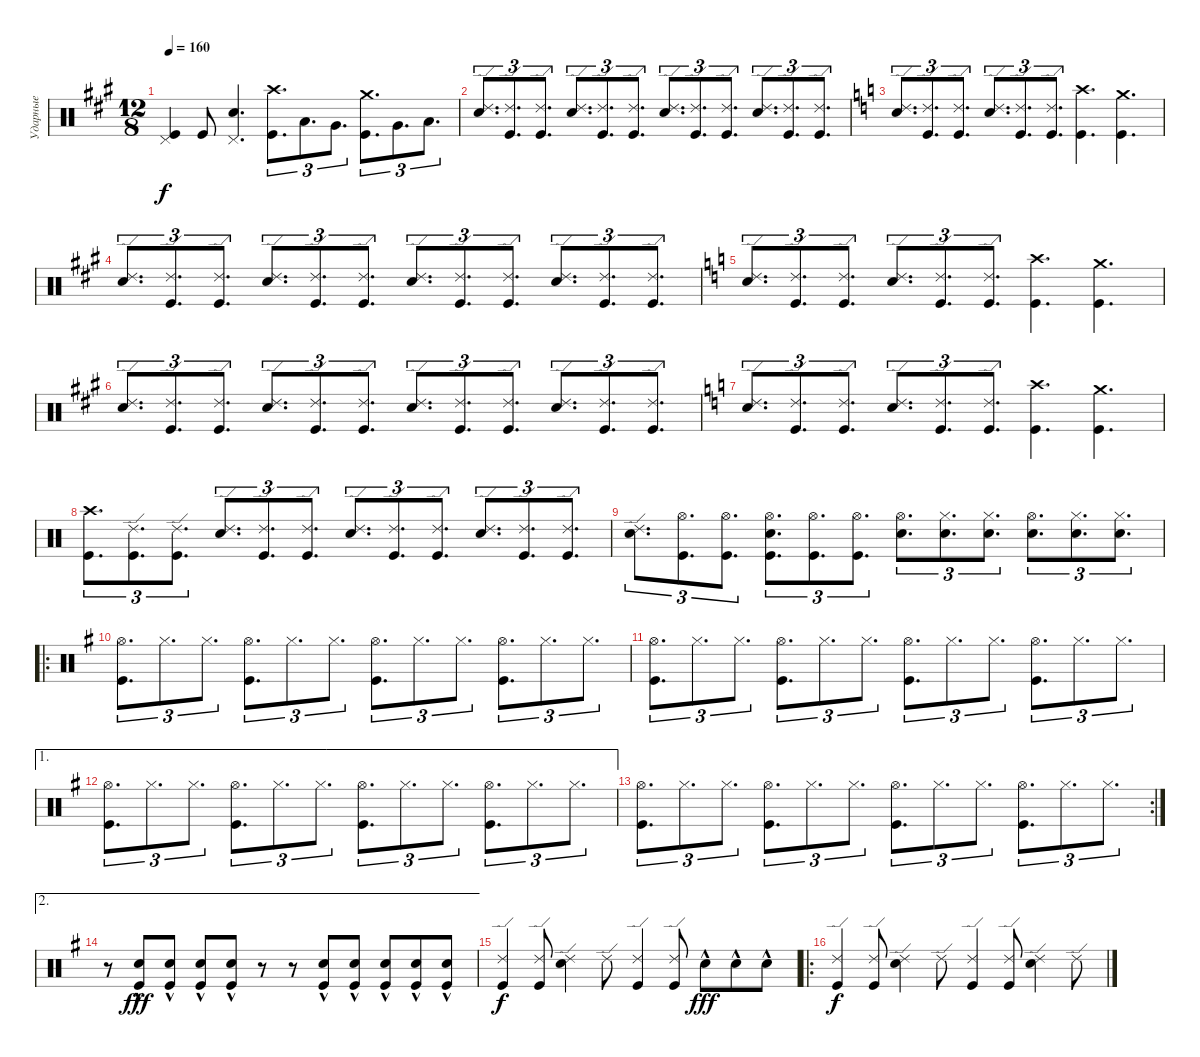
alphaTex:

\track ("Ударные" "Ударные") {instrument percussion}
\staff {score}
\articulation defaults
\ts (12 8)
\tempo 160
\clef neutral
\ks a
("Kick (hit)" "Pedal Hi-Hat (hit)").4{dy f} "Kick (hit)".8 ("Snare (hit) 2" "Pedal Hi-Hat (hit)").4{d} ("Kick (hit)" "Crash high (hit)").8{d tu (3 2)} "Low Tom (hit)".8{d tu (3 2)} "Very Low Tom (hit)".8{d tu (3 2)} ("Kick (hit)" "Crash medium (hit)").8{d tu (3 2)} "Very Low Tom (hit)".8{d tu (3 2)} "Low Floor Tom (hit)".8{d tu (3 2)} |
("Snare (hit) 2" "Ride (edge) 2").8{d tu (3 2)} ("Kick (hit)" "Ride (edge) 2").8{d tu (3 2)} ("Kick (hit)" "Ride (edge) 2").8{d tu (3 2)} ("Snare (hit) 2" "Ride (edge) 2").8{d tu (3 2)} ("Kick (hit)" "Ride (edge) 2").8{d tu (3 2)} ("Kick (hit)" "Ride (edge) 2").8{d tu (3 2)} ("Snare (hit) 2" "Ride (edge) 2").8{d tu (3 2)} ("Kick (hit)" "Ride (edge) 2").8{d tu (3 2)} ("Kick (hit)" "Ride (edge) 2").8{d tu (3 2)} ("Snare (hit) 2" "Ride (edge) 2").8{d tu (3 2)} ("Kick (hit)" "Ride (edge) 2").8{d tu (3 2)} ("Kick (hit)" "Ride (edge) 2").8{d tu (3 2)} |
\ks c
("Snare (hit) 2" "Ride (edge) 2").8{d tu (3 2)} ("Kick (hit)" "Ride (edge) 2").8{d tu (3 2)} ("Kick (hit)" "Ride (edge) 2").8{d tu (3 2)} ("Snare (hit) 2" "Ride (edge) 2").8{d tu (3 2)} ("Kick (hit)" "Ride (edge) 2").8{d tu (3 2)} ("Kick (hit)" "Ride (edge) 2").8{d tu (3 2)} ("Kick (hit)" "Crash high (hit)").4{d} ("Kick (hit)" "Crash medium (hit)").4{d} |
\ks a
("Snare (hit) 2" "Ride (edge) 2").8{d tu (3 2)} ("Kick (hit)" "Ride (edge) 2").8{d tu (3 2)} ("Kick (hit)" "Ride (edge) 2").8{d tu (3 2)} ("Snare (hit) 2" "Ride (edge) 2").8{d tu (3 2)} ("Kick (hit)" "Ride (edge) 2").8{d tu (3 2)} ("Kick (hit)" "Ride (edge) 2").8{d tu (3 2)} ("Snare (hit) 2" "Ride (edge) 2").8{d tu (3 2)} ("Kick (hit)" "Ride (edge) 2").8{d tu (3 2)} ("Kick (hit)" "Ride (edge) 2").8{d tu (3 2)} ("Snare (hit) 2" "Ride (edge) 2").8{d tu (3 2)} ("Kick (hit)" "Ride (edge) 2").8{d tu (3 2)} ("Kick (hit)" "Ride (edge) 2").8{d tu (3 2)} |
\ks c
("Snare (hit) 2" "Ride (edge) 2").8{d tu (3 2)} ("Kick (hit)" "Ride (edge) 2").8{d tu (3 2)} ("Kick (hit)" "Ride (edge) 2").8{d tu (3 2)} ("Snare (hit) 2" "Ride (edge) 2").8{d tu (3 2)} ("Kick (hit)" "Ride (edge) 2").8{d tu (3 2)} ("Kick (hit)" "Ride (edge) 2").8{d tu (3 2)} ("Kick (hit)" "Crash high (hit)").4{d} ("Kick (hit)" "Crash medium (hit)").4{d} |
\ks a
("Snare (hit) 2" "Ride (edge) 2").8{d tu (3 2)} ("Kick (hit)" "Ride (edge) 2").8{d tu (3 2)} ("Kick (hit)" "Ride (edge) 2").8{d tu (3 2)} ("Snare (hit) 2" "Ride (edge) 2").8{d tu (3 2)} ("Kick (hit)" "Ride (edge) 2").8{d tu (3 2)} ("Kick (hit)" "Ride (edge) 2").8{d tu (3 2)} ("Snare (hit) 2" "Ride (edge) 2").8{d tu (3 2)} ("Kick (hit)" "Ride (edge) 2").8{d tu (3 2)} ("Kick (hit)" "Ride (edge) 2").8{d tu (3 2)} ("Snare (hit) 2" "Ride (edge) 2").8{d tu (3 2)} ("Kick (hit)" "Ride (edge) 2").8{d tu (3 2)} ("Kick (hit)" "Ride (edge) 2").8{d tu (3 2)} |
\ks c
("Snare (hit) 2" "Ride (edge) 2").8{d tu (3 2)} ("Kick (hit)" "Ride (edge) 2").8{d tu (3 2)} ("Kick (hit)" "Ride (edge) 2").8{d tu (3 2)} ("Snare (hit) 2" "Ride (edge) 2").8{d tu (3 2)} ("Kick (hit)" "Ride (edge) 2").8{d tu (3 2)} ("Kick (hit)" "Ride (edge) 2").8{d tu (3 2)} ("Kick (hit)" "Crash high (hit)").4{d} ("Kick (hit)" "Crash medium (hit)").4{d} |
("Kick (hit)" "Crash high (hit)").8{d tu (3 2)} ("Kick (hit)" "Ride (edge) 2").8{d tu (3 2)} ("Kick (hit)" "Ride (edge) 2").8{d tu (3 2)} ("Snare (hit) 2" "Ride (edge) 2").8{d tu (3 2)} ("Kick (hit)" "Ride (edge) 2").8{d tu (3 2)} ("Kick (hit)" "Ride (edge) 2").8{d tu (3 2)} ("Snare (hit) 2" "Ride (edge) 2").8{d tu (3 2)} ("Kick (hit)" "Ride (edge) 2").8{d tu (3 2)} ("Kick (hit)" "Ride (edge) 2").8{d tu (3 2)} ("Snare (hit) 2" "Ride (edge) 2").8{d tu (3 2)} ("Kick (hit)" "Ride (edge) 2").8{d tu (3 2)} ("Kick (hit)" "Ride (edge) 2").8{d tu (3 2)} |
("Snare (hit) 2" "Ride (edge) 2").8{d tu (3 2)} ("Kick (hit)" "Hi-Hat (open)").8{d tu (3 2)} ("Kick (hit)" "Hi-Hat (open)").8{d tu (3 2)} ("Snare (hit) 2" "Kick (hit)" "Hi-Hat (open)").8{d tu (3 2)} ("Hi-Hat (open)" "Kick (hit)").8{d tu (3 2)} ("Hi-Hat (open)" "Kick (hit)").8{d tu (3 2)} ("Snare (hit) 2" "Hi-Hat (open)").8{d tu (3 2)} ("Snare (hit) 2" "Hi-Hat (closed)").8{d tu (3 2)} ("Snare (hit) 2" "Hi-Hat (closed)").8{d tu (3 2)} ("Snare (hit) 2" "Hi-Hat (open)").8{d tu (3 2)} ("Snare (hit) 2" "Hi-Hat (closed)").8{d tu (3 2)} ("Snare (hit) 2" "Hi-Hat (closed)").8{d tu (3 2)} |
\ro
\ks g
("Kick (hit)" "Hi-Hat (open)").8{d tu (3 2)} "Hi-Hat (closed)".8{d tu (3 2)} "Hi-Hat (closed)".8{d tu (3 2)} ("Hi-Hat (open)" "Kick (hit)").8{d tu (3 2)} "Hi-Hat (closed)".8{d tu (3 2)} "Hi-Hat (closed)".8{d tu (3 2)} ("Hi-Hat (open)" "Kick (hit)").8{d tu (3 2)} "Hi-Hat (closed)".8{d tu (3 2)} "Hi-Hat (closed)".8{d tu (3 2)} ("Kick (hit)" "Hi-Hat (open)").8{d tu (3 2)} "Hi-Hat (closed)".8{d tu (3 2)} "Hi-Hat (closed)".8{d tu (3 2)} |
("Kick (hit)" "Hi-Hat (open)").8{d tu (3 2)} "Hi-Hat (closed)".8{d tu (3 2)} "Hi-Hat (closed)".8{d tu (3 2)} ("Hi-Hat (open)" "Kick (hit)").8{d tu (3 2)} "Hi-Hat (closed)".8{d tu (3 2)} "Hi-Hat (closed)".8{d tu (3 2)} ("Hi-Hat (open)" "Kick (hit)").8{d tu (3 2)} "Hi-Hat (closed)".8{d tu (3 2)} "Hi-Hat (closed)".8{d tu (3 2)} ("Kick (hit)" "Hi-Hat (open)").8{d tu (3 2)} "Hi-Hat (closed)".8{d tu (3 2)} "Hi-Hat (closed)".8{d tu (3 2)} |
\ae 1
("Kick (hit)" "Hi-Hat (open)").8{d tu (3 2)} "Hi-Hat (closed)".8{d tu (3 2)} "Hi-Hat (closed)".8{d tu (3 2)} ("Hi-Hat (open)" "Kick (hit)").8{d tu (3 2)} "Hi-Hat (closed)".8{d tu (3 2)} "Hi-Hat (closed)".8{d tu (3 2)} ("Hi-Hat (open)" "Kick (hit)").8{d tu (3 2)} "Hi-Hat (closed)".8{d tu (3 2)} "Hi-Hat (closed)".8{d tu (3 2)} ("Kick (hit)" "Hi-Hat (open)").8{d tu (3 2)} "Hi-Hat (closed)".8{d tu (3 2)} "Hi-Hat (closed)".8{d tu (3 2)} |
\rc 2
("Kick (hit)" "Hi-Hat (open)").8{d tu (3 2)} "Hi-Hat (closed)".8{d tu (3 2)} "Hi-Hat (closed)".8{d tu (3 2)} ("Hi-Hat (open)" "Kick (hit)").8{d tu (3 2)} "Hi-Hat (closed)".8{d tu (3 2)} "Hi-Hat (closed)".8{d tu (3 2)} ("Hi-Hat (open)" "Kick (hit)").8{d tu (3 2)} "Hi-Hat (closed)".8{d tu (3 2)} "Hi-Hat (closed)".8{d tu (3 2)} ("Kick (hit)" "Hi-Hat (open)").8{d tu (3 2)} "Hi-Hat (closed)".8{d tu (3 2)} "Hi-Hat (closed)".8{d tu (3 2)} |
\ae 2
r.8 ("Snare (hit) 2"{hac} "Kick (hit)").8{dy fff} ("Snare (hit) 2"{hac} "Kick (hit)").8 ("Snare (hit) 2"{hac} "Kick (hit)").8 ("Snare (hit) 2"{hac} "Kick (hit)").8 r.8 r.8 ("Snare (hit) 2"{hac} "Kick (hit)").8 ("Snare (hit) 2"{hac} "Kick (hit)").8 ("Snare (hit) 2"{hac} "Kick (hit)").8 ("Snare (hit) 2"{hac} "Kick (hit)").8 ("Snare (hit) 2"{hac} "Kick (hit)").8 |
("Kick (hit)" "Ride (edge) 2").4{dy f} ("Kick (hit)" "Ride (edge) 2").8 ("Snare (hit) 2" "Ride (edge) 2").4 "Ride (edge) 2".8 ("Kick (hit)" "Ride (edge) 2").4 ("Kick (hit)" "Ride (edge) 2").8 "Snare (hit) 2"{hac}.8{dy fff} "Snare (hit) 2"{hac}.8 "Snare (hit) 2"{hac}.8 |
\ro
("Kick (hit)" "Ride (edge) 2").4{dy f} ("Kick (hit)" "Ride (edge) 2").8 ("Snare (hit) 2" "Ride (edge) 2").4 "Ride (edge) 2".8 ("Kick (hit)" "Ride (edge) 2").4 ("Kick (hit)" "Ride (edge) 2").8 ("Snare (hit) 2" "Ride (edge) 2").4 "Ride (edge) 2".8
